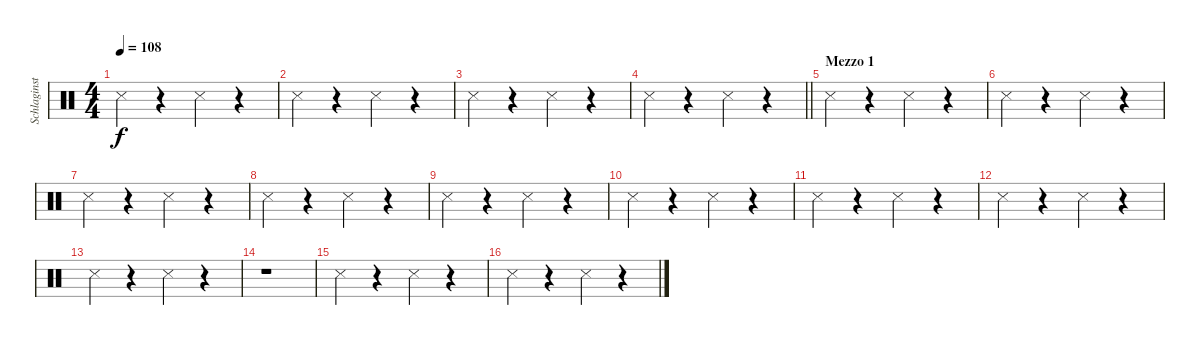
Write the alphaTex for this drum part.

\track ("Schlaginstrumente - Auswahl" "Schlaginst") {instrument percussion}
\staff {score}
\articulation defaults
\ts (4 4)
\tempo 108
\clef neutral
\ks c "Snare (side stick) 3".4{dy f}
r.4 "Snare (side stick) 3".4 r.4 |
"Snare (side stick) 3".4 r.4 "Snare (side stick) 3".4 r.4 |
"Snare (side stick) 3".4 r.4 "Snare (side stick) 3".4 r.4 |
\barLineRight lightlight "Snare (side stick) 3".4
r.4 "Snare (side stick) 3".4 r.4 |
\section ("" "Mezzo 1")
"Snare (side stick) 3".4 r.4 "Snare (side stick) 3".4 r.4 |
"Snare (side stick) 3".4 r.4 "Snare (side stick) 3".4 r.4 |
"Snare (side stick) 3".4 r.4 "Snare (side stick) 3".4 r.4 |
"Snare (side stick) 3".4 r.4 "Snare (side stick) 3".4 r.4 |
"Snare (side stick) 3".4 r.4 "Snare (side stick) 3".4 r.4 |
"Snare (side stick) 3".4 r.4 "Snare (side stick) 3".4 r.4 |
"Snare (side stick) 3".4 r.4 "Snare (side stick) 3".4 r.4 |
"Snare (side stick) 3".4 r.4 "Snare (side stick) 3".4 r.4 |
"Snare (side stick) 3".4 r.4 "Snare (side stick) 3".4 r.4 |
r.1 |
"Snare (side stick) 3".4 r.4 "Snare (side stick) 3".4 r.4 |
"Snare (side stick) 3".4 r.4 "Snare (side stick) 3".4 r.4
